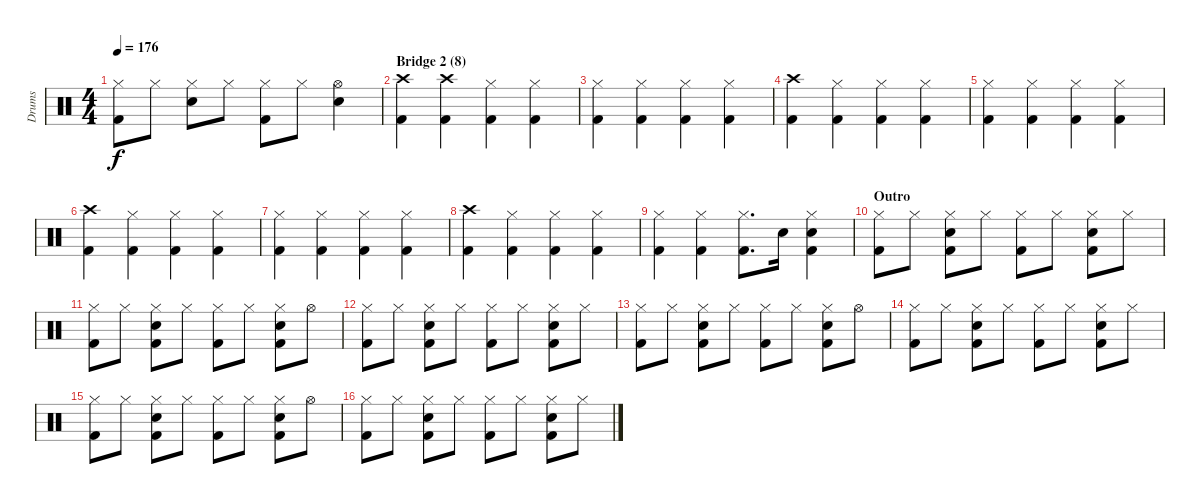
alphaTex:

\track ("Drums" "Drums") {instrument percussion}
\staff {score}
\articulation defaults
\ts (4 4)
\tempo 176
\clef neutral
\ks c
("Hi-Hat (closed)" "Kick (hit) 2").8{dy f} "Hi-Hat (closed)".8 ("Hi-Hat (closed)" "Snare (hit) 2").8 "Hi-Hat (closed)".8 ("Hi-Hat (closed)" "Kick (hit) 2").8 "Hi-Hat (closed)".8 ("Hi-Hat (open)" "Snare (hit) 2").4 |
\section ("" "Bridge 2 (8)")
("Crash high (hit)" "Kick (hit) 2").4 ("Crash high (hit)" "Kick (hit) 2").4 ("Hi-Hat (closed)" "Kick (hit) 2").4 ("Hi-Hat (closed)" "Kick (hit) 2").4 |
("Hi-Hat (closed)" "Kick (hit) 2").4 ("Hi-Hat (closed)" "Kick (hit) 2").4 ("Hi-Hat (closed)" "Kick (hit) 2").4 ("Hi-Hat (closed)" "Kick (hit) 2").4 |
("Crash high (hit)" "Kick (hit) 2").4 ("Hi-Hat (closed)" "Kick (hit) 2").4 ("Hi-Hat (closed)" "Kick (hit) 2").4 ("Hi-Hat (closed)" "Kick (hit) 2").4 |
("Hi-Hat (closed)" "Kick (hit) 2").4 ("Hi-Hat (closed)" "Kick (hit) 2").4 ("Hi-Hat (closed)" "Kick (hit) 2").4 ("Hi-Hat (closed)" "Kick (hit) 2").4 |
("Crash high (hit)" "Kick (hit) 2").4 ("Hi-Hat (closed)" "Kick (hit) 2").4 ("Hi-Hat (closed)" "Kick (hit) 2").4 ("Hi-Hat (closed)" "Kick (hit) 2").4 |
("Hi-Hat (closed)" "Kick (hit) 2").4 ("Hi-Hat (closed)" "Kick (hit) 2").4 ("Hi-Hat (closed)" "Kick (hit) 2").4 ("Hi-Hat (closed)" "Kick (hit) 2").4 |
("Crash high (hit)" "Kick (hit) 2").4 ("Hi-Hat (closed)" "Kick (hit) 2").4 ("Hi-Hat (closed)" "Kick (hit) 2").4 ("Hi-Hat (closed)" "Kick (hit) 2").4 |
("Hi-Hat (closed)" "Kick (hit) 2").4 ("Hi-Hat (closed)" "Kick (hit) 2").4 ("Hi-Hat (closed)" "Kick (hit) 2").8{d} "Snare (hit) 2".16 ("Hi-Hat (closed)" "Snare (hit) 2" "Kick (hit) 2").4 |
\section ("" "Outro")
("Hi-Hat (closed)" "Kick (hit) 2").8 "Hi-Hat (closed)".8 ("Hi-Hat (closed)" "Snare (hit) 2" "Kick (hit) 2").8 "Hi-Hat (closed)".8 ("Hi-Hat (closed)" "Kick (hit) 2").8 "Hi-Hat (closed)".8 ("Hi-Hat (closed)" "Snare (hit) 2" "Kick (hit) 2").8 "Hi-Hat (closed)".8 |
("Hi-Hat (closed)" "Kick (hit) 2").8 "Hi-Hat (closed)".8 ("Hi-Hat (closed)" "Snare (hit) 2" "Kick (hit) 2").8 "Hi-Hat (closed)".8 ("Hi-Hat (closed)" "Kick (hit) 2").8 "Hi-Hat (closed)".8 ("Hi-Hat (closed)" "Snare (hit) 2" "Kick (hit) 2").8 "Hi-Hat (open)".8 |
("Hi-Hat (closed)" "Kick (hit) 2").8 "Hi-Hat (closed)".8 ("Hi-Hat (closed)" "Snare (hit) 2" "Kick (hit) 2").8 "Hi-Hat (closed)".8 ("Hi-Hat (closed)" "Kick (hit) 2").8 "Hi-Hat (closed)".8 ("Hi-Hat (closed)" "Snare (hit) 2" "Kick (hit) 2").8 "Hi-Hat (closed)".8 |
("Hi-Hat (closed)" "Kick (hit) 2").8 "Hi-Hat (closed)".8 ("Hi-Hat (closed)" "Snare (hit) 2" "Kick (hit) 2").8 "Hi-Hat (closed)".8 ("Hi-Hat (closed)" "Kick (hit) 2").8 "Hi-Hat (closed)".8 ("Hi-Hat (closed)" "Snare (hit) 2" "Kick (hit) 2").8 "Hi-Hat (open)".8 |
("Hi-Hat (closed)" "Kick (hit) 2").8 "Hi-Hat (closed)".8 ("Hi-Hat (closed)" "Snare (hit) 2" "Kick (hit) 2").8 "Hi-Hat (closed)".8 ("Hi-Hat (closed)" "Kick (hit) 2").8 "Hi-Hat (closed)".8 ("Hi-Hat (closed)" "Snare (hit) 2" "Kick (hit) 2").8 "Hi-Hat (closed)".8 |
("Hi-Hat (closed)" "Kick (hit) 2").8 "Hi-Hat (closed)".8 ("Hi-Hat (closed)" "Snare (hit) 2" "Kick (hit) 2").8 "Hi-Hat (closed)".8 ("Hi-Hat (closed)" "Kick (hit) 2").8 "Hi-Hat (closed)".8 ("Hi-Hat (closed)" "Snare (hit) 2" "Kick (hit) 2").8 "Hi-Hat (open)".8 |
("Hi-Hat (closed)" "Kick (hit) 2").8 "Hi-Hat (closed)".8 ("Hi-Hat (closed)" "Snare (hit) 2" "Kick (hit) 2").8 "Hi-Hat (closed)".8 ("Hi-Hat (closed)" "Kick (hit) 2").8 "Hi-Hat (closed)".8 ("Hi-Hat (closed)" "Snare (hit) 2" "Kick (hit) 2").8 "Hi-Hat (closed)".8
